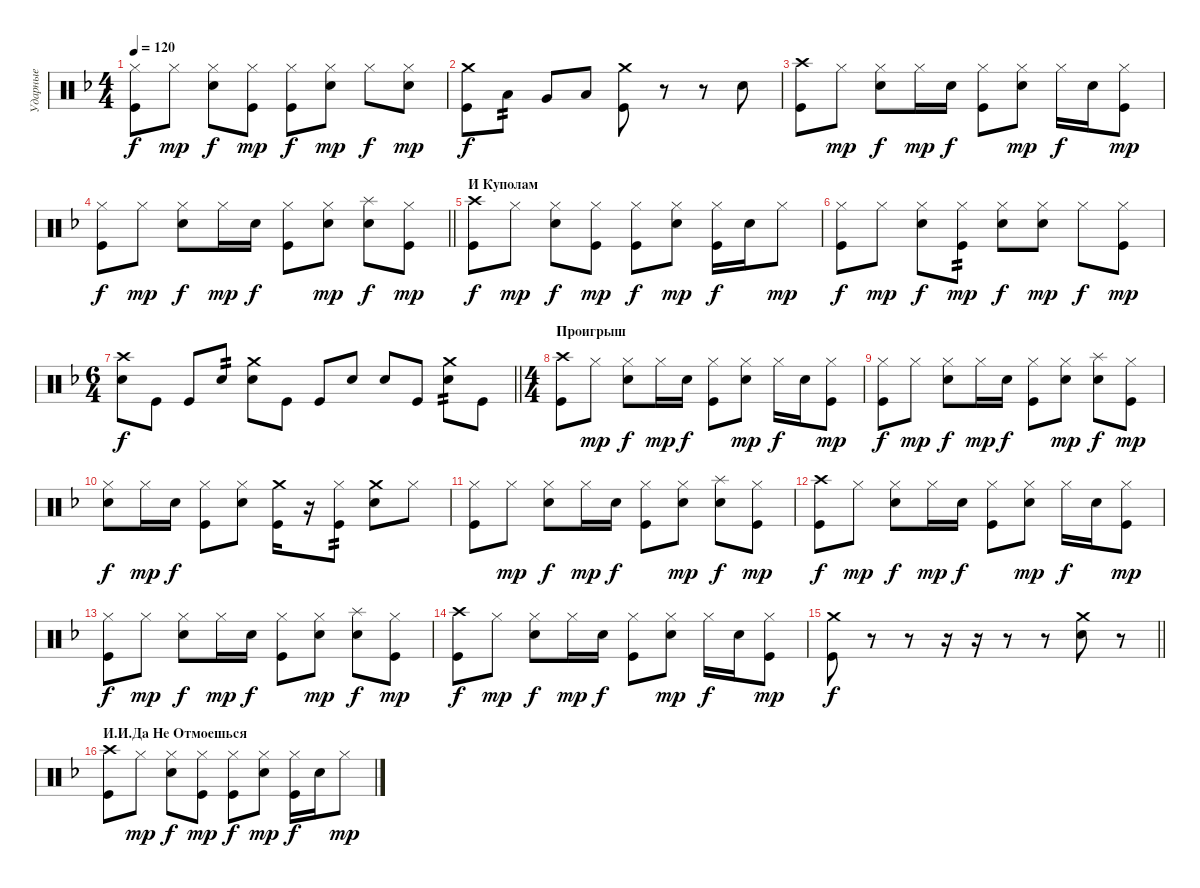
\track ("Ударные" "Ударные") {instrument percussion}
\staff {score}
\articulation defaults
\ts (4 4)
\tempo 120
\clef neutral
\ks dminor
("Hi-Hat (closed)" "Kick (hit)").8{dy f} "Hi-Hat (closed)".8{dy mp} ("Hi-Hat (closed)" "Snare (hit) 2").8{dy f} ("Hi-Hat (closed)" "Kick (hit)").8{dy mp} ("Hi-Hat (closed)" "Kick (hit)").8{dy f} ("Hi-Hat (closed)" "Snare (hit) 2").8{dy mp} "Hi-Hat (closed)".8{dy f} ("Hi-Hat (closed)" "Snare (hit) 2").8{dy mp} |
("Crash medium (hit)" "Kick (hit)").8{dy f} "Low Tom (hit)".8{tp 2} "Very Low Tom (hit)".8 "Low Floor Tom (hit)".8 ("Crash medium (hit)" "Kick (hit)").8 r.8 r.8 "Snare (hit) 2".8 |
("Crash high (hit)" "Kick (hit)").8 "Hi-Hat (closed)".8{dy mp} ("Hi-Hat (closed)" "Snare (hit) 2").8{dy f} "Hi-Hat (closed)".16{dy mp} "Snare (hit) 2".16{dy f} ("Hi-Hat (closed)" "Kick (hit)").8 ("Hi-Hat (closed)" "Snare (hit) 2").8{dy mp} "Hi-Hat (closed)".16{dy f} "Snare (hit) 2".16 ("Hi-Hat (closed)" "Kick (hit)").8{dy mp} |
\barLineRight lightlight
("Hi-Hat (closed)" "Kick (hit)").8{dy f} "Hi-Hat (closed)".8{dy mp} ("Hi-Hat (closed)" "Snare (hit) 2").8{dy f} "Hi-Hat (closed)".16{dy mp} "Snare (hit) 2".16{dy f} ("Hi-Hat (closed)" "Kick (hit)").8 ("Hi-Hat (closed)" "Snare (hit) 2").8{dy mp} ("Splash (hit)" "Snare (hit) 2").8{dy f} ("Hi-Hat (closed)" "Kick (hit)").8{dy mp} |
\section ("" "И Куполам")
("Crash high (hit)" "Kick (hit)").8{dy f} "Hi-Hat (closed)".8{dy mp} ("Hi-Hat (closed)" "Snare (hit) 2").8{dy f} ("Hi-Hat (closed)" "Kick (hit)").8{dy mp} ("Hi-Hat (closed)" "Kick (hit)").8{dy f} ("Hi-Hat (closed)" "Snare (hit) 2").8{dy mp} ("Hi-Hat (closed)" "Kick (hit)").16{dy f} "Snare (hit) 2".16 "Hi-Hat (closed)".8{dy mp} |
("Hi-Hat (closed)" "Kick (hit)").8{dy f} "Hi-Hat (closed)".8{dy mp} ("Hi-Hat (closed)" "Snare (hit) 2").8{dy f} ("Hi-Hat (closed)" "Kick (hit)").8{tp 2 dy mp} ("Hi-Hat (closed)" "Snare (hit) 2").8{dy f} ("Hi-Hat (closed)" "Snare (hit) 2").8{dy mp} "Hi-Hat (closed)".8{dy f} ("Hi-Hat (closed)" "Kick (hit)").8{dy mp} |
\ts (6 4)
\barLineRight lightlight
("Crash high (hit)" "Snare (hit) 2").8{dy f} "Kick (hit)".8 "Kick (hit)".8 "Snare (hit) 2".8{tp 2} ("Crash medium (hit)" "Snare (hit) 2").8 "Kick (hit)".8 "Kick (hit)".8 "Snare (hit) 2".8 "Snare (hit) 2".8 "Kick (hit)".8 ("Crash medium (hit)" "Snare (hit) 2").8{tp 2} "Kick (hit)".8 |
\ts (4 4)
\section ("" "Проигрыш")
("Crash high (hit)" "Kick (hit)").8 "Hi-Hat (closed)".8{dy mp} ("Hi-Hat (closed)" "Snare (hit) 2").8{dy f} "Hi-Hat (closed)".16{dy mp} "Snare (hit) 2".16{dy f} ("Hi-Hat (closed)" "Kick (hit)").8 ("Hi-Hat (closed)" "Snare (hit) 2").8{dy mp} "Hi-Hat (closed)".16{dy f} "Snare (hit) 2".16 ("Hi-Hat (closed)" "Kick (hit)").8{dy mp} |
("Hi-Hat (closed)" "Kick (hit)").8{dy f} "Hi-Hat (closed)".8{dy mp} ("Hi-Hat (closed)" "Snare (hit) 2").8{dy f} "Hi-Hat (closed)".16{dy mp} "Snare (hit) 2".16{dy f} ("Hi-Hat (closed)" "Kick (hit)").8 ("Hi-Hat (closed)" "Snare (hit) 2").8{dy mp} ("Splash (hit)" "Snare (hit) 2").8{dy f} ("Hi-Hat (closed)" "Kick (hit)").8{dy mp} |
("Hi-Hat (closed)" "Snare (hit) 2").8{dy f} "Hi-Hat (closed)".16{dy mp} "Snare (hit) 2".16{dy f} ("Hi-Hat (closed)" "Kick (hit)").8 ("Hi-Hat (closed)" "Snare (hit) 2").8 ("Crash medium (hit)" "Kick (hit)").16 r.16 ("Hi-Hat (closed)" "Kick (hit)").8{tp 2} ("Crash medium (hit)" "Snare (hit) 2").8 "Hi-Hat (closed)".8 |
("Hi-Hat (closed)" "Kick (hit)").8 "Hi-Hat (closed)".8{dy mp} ("Hi-Hat (closed)" "Snare (hit) 2").8{dy f} "Hi-Hat (closed)".16{dy mp} "Snare (hit) 2".16{dy f} ("Hi-Hat (closed)" "Kick (hit)").8 ("Hi-Hat (closed)" "Snare (hit) 2").8{dy mp} ("Splash (hit)" "Snare (hit) 2").8{dy f} ("Hi-Hat (closed)" "Kick (hit)").8{dy mp} |
("Crash high (hit)" "Kick (hit)").8{dy f} "Hi-Hat (closed)".8{dy mp} ("Hi-Hat (closed)" "Snare (hit) 2").8{dy f} "Hi-Hat (closed)".16{dy mp} "Snare (hit) 2".16{dy f} ("Hi-Hat (closed)" "Kick (hit)").8 ("Hi-Hat (closed)" "Snare (hit) 2").8{dy mp} "Hi-Hat (closed)".16{dy f} "Snare (hit) 2".16 ("Hi-Hat (closed)" "Kick (hit)").8{dy mp} |
("Hi-Hat (closed)" "Kick (hit)").8{dy f} "Hi-Hat (closed)".8{dy mp} ("Hi-Hat (closed)" "Snare (hit) 2").8{dy f} "Hi-Hat (closed)".16{dy mp} "Snare (hit) 2".16{dy f} ("Hi-Hat (closed)" "Kick (hit)").8 ("Hi-Hat (closed)" "Snare (hit) 2").8{dy mp} ("Splash (hit)" "Snare (hit) 2").8{dy f} ("Hi-Hat (closed)" "Kick (hit)").8{dy mp} |
("Crash high (hit)" "Kick (hit)").8{dy f} "Hi-Hat (closed)".8{dy mp} ("Hi-Hat (closed)" "Snare (hit) 2").8{dy f} "Hi-Hat (closed)".16{dy mp} "Snare (hit) 2".16{dy f} ("Hi-Hat (closed)" "Kick (hit)").8 ("Hi-Hat (closed)" "Snare (hit) 2").8{dy mp} "Hi-Hat (closed)".16{dy f} "Snare (hit) 2".16 ("Hi-Hat (closed)" "Kick (hit)").8{dy mp} |
\barLineRight lightlight
("Crash medium (hit)" "Kick (hit)").8{dy f} r.8 r.8 r.16 r.16 r.8 r.8 ("Crash medium (hit)" "Snare (hit) 2").8 r.8 |
\section ("" "И.И.Да Не Отмоешься")
("Crash high (hit)" "Kick (hit)").8 "Hi-Hat (closed)".8{dy mp} ("Hi-Hat (closed)" "Snare (hit) 2").8{dy f} ("Hi-Hat (closed)" "Kick (hit)").8{dy mp} ("Hi-Hat (closed)" "Kick (hit)").8{dy f} ("Hi-Hat (closed)" "Snare (hit) 2").8{dy mp} ("Hi-Hat (closed)" "Kick (hit)").16{dy f} "Snare (hit) 2".16 "Hi-Hat (closed)".8{dy mp}
